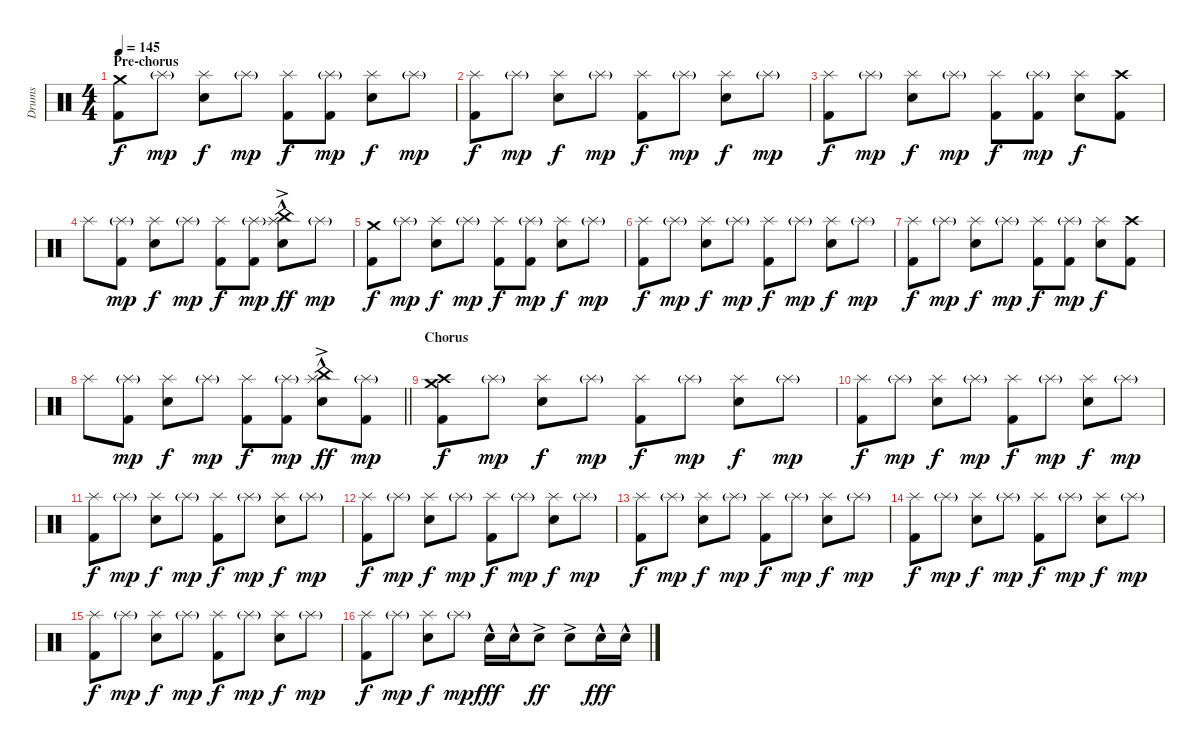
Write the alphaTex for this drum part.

\track ("Drums" "Drums") {instrument percussion}
\staff {score}
\articulation defaults
\ts (4 4)
\section ("" "Pre-chorus")
\tempo 145
\clef neutral
\ks c
("Crash medium (hit)" "Kick (hit) 2").8{dy f} "Splash (hit)"{g}.8{dy mp} ("Splash (hit)" "Snare (hit) 2").8{dy f} "Splash (hit)"{g}.8{dy mp} ("Splash (hit)" "Kick (hit) 2").8{dy f} ("Splash (hit)"{g} "Kick (hit) 2").8{dy mp} ("Splash (hit)" "Snare (hit) 2").8{dy f} "Splash (hit)"{g}.8{dy mp} |
("Splash (hit)" "Kick (hit) 2").8{dy f} "Splash (hit)"{g}.8{dy mp} ("Splash (hit)" "Snare (hit) 2").8{dy f} "Splash (hit)"{g}.8{dy mp} ("Splash (hit)" "Kick (hit) 2").8{dy f} "Splash (hit)"{g}.8{dy mp} ("Splash (hit)" "Snare (hit) 2").8{dy f} "Splash (hit)"{g}.8{dy mp} |
("Splash (hit)" "Kick (hit) 2").8{dy f} "Splash (hit)"{g}.8{dy mp} ("Splash (hit)" "Snare (hit) 2").8{dy f} "Splash (hit)"{g}.8{dy mp} ("Splash (hit)" "Kick (hit) 2").8{dy f} ("Splash (hit)"{g} "Kick (hit) 2").8{dy mp} ("Splash (hit)" "Snare (hit) 2").8{dy f} ("Crash high (hit)" "Kick (hit) 2").8 |
"Splash (hit)".8 ("Splash (hit)"{g} "Kick (hit) 2").8{dy mp} ("Splash (hit)" "Snare (hit) 2").8{dy f} "Splash (hit)"{g}.8{dy mp} ("Splash (hit)" "Kick (hit) 2").8{dy f} ("Splash (hit)"{g} "Kick (hit) 2").8{dy mp} ("China (hit)"{hac} "Splash (hit)"{ac} "Snare (hit) 2").8{dy ff} "Splash (hit)"{g}.8{dy mp} |
("Crash medium (hit)" "Kick (hit) 2").8{dy f} "Splash (hit)"{g}.8{dy mp} ("Splash (hit)" "Snare (hit) 2").8{dy f} "Splash (hit)"{g}.8{dy mp} ("Splash (hit)" "Kick (hit) 2").8{dy f} ("Splash (hit)"{g} "Kick (hit) 2").8{dy mp} ("Splash (hit)" "Snare (hit) 2").8{dy f} "Splash (hit)"{g}.8{dy mp} |
("Splash (hit)" "Kick (hit) 2").8{dy f} "Splash (hit)"{g}.8{dy mp} ("Splash (hit)" "Snare (hit) 2").8{dy f} "Splash (hit)"{g}.8{dy mp} ("Splash (hit)" "Kick (hit) 2").8{dy f} "Splash (hit)"{g}.8{dy mp} ("Splash (hit)" "Snare (hit) 2").8{dy f} "Splash (hit)"{g}.8{dy mp} |
("Splash (hit)" "Kick (hit) 2").8{dy f} "Splash (hit)"{g}.8{dy mp} ("Splash (hit)" "Snare (hit) 2").8{dy f} "Splash (hit)"{g}.8{dy mp} ("Splash (hit)" "Kick (hit) 2").8{dy f} ("Splash (hit)"{g} "Kick (hit) 2").8{dy mp} ("Splash (hit)" "Snare (hit) 2").8{dy f} ("Crash high (hit)" "Kick (hit) 2").8 |
\barLineRight lightlight "Splash (hit)".8
("Splash (hit)"{g} "Kick (hit) 2").8{dy mp} ("Splash (hit)" "Snare (hit) 2").8{dy f} "Splash (hit)"{g}.8{dy mp} ("Splash (hit)" "Kick (hit) 2").8{dy f} ("Splash (hit)"{g} "Kick (hit) 2").8{dy mp} ("China (hit)"{hac} "Splash (hit)"{ac} "Snare (hit) 2").8{dy ff} ("Splash (hit)"{g} "Kick (hit) 2").8{dy mp} |
\section ("" "Chorus")
("Crash high (hit)" "Crash medium (hit)" "Kick (hit) 2").8{dy f} "Splash (hit)"{g}.8{dy mp} ("Splash (hit)" "Snare (hit) 2").8{dy f} "Splash (hit)"{g}.8{dy mp} ("Splash (hit)" "Kick (hit) 2").8{dy f} "Splash (hit)"{g}.8{dy mp} ("Splash (hit)" "Snare (hit) 2").8{dy f} "Splash (hit)"{g}.8{dy mp} |
("Splash (hit)" "Kick (hit) 2").8{dy f} "Splash (hit)"{g}.8{dy mp} ("Splash (hit)" "Snare (hit) 2").8{dy f} "Splash (hit)"{g}.8{dy mp} ("Splash (hit)" "Kick (hit) 2").8{dy f} "Splash (hit)"{g}.8{dy mp} ("Splash (hit)" "Snare (hit) 2").8{dy f} "Splash (hit)"{g}.8{dy mp} |
("Splash (hit)" "Kick (hit) 2").8{dy f} "Splash (hit)"{g}.8{dy mp} ("Splash (hit)" "Snare (hit) 2").8{dy f} "Splash (hit)"{g}.8{dy mp} ("Splash (hit)" "Kick (hit) 2").8{dy f} "Splash (hit)"{g}.8{dy mp} ("Splash (hit)" "Snare (hit) 2").8{dy f} "Splash (hit)"{g}.8{dy mp} |
("Splash (hit)" "Kick (hit) 2").8{dy f} "Splash (hit)"{g}.8{dy mp} ("Splash (hit)" "Snare (hit) 2").8{dy f} "Splash (hit)"{g}.8{dy mp} ("Splash (hit)" "Kick (hit) 2").8{dy f} "Splash (hit)"{g}.8{dy mp} ("Splash (hit)" "Snare (hit) 2").8{dy f} "Splash (hit)"{g}.8{dy mp} |
("Splash (hit)" "Kick (hit) 2").8{dy f} "Splash (hit)"{g}.8{dy mp} ("Splash (hit)" "Snare (hit) 2").8{dy f} "Splash (hit)"{g}.8{dy mp} ("Splash (hit)" "Kick (hit) 2").8{dy f} "Splash (hit)"{g}.8{dy mp} ("Splash (hit)" "Snare (hit) 2").8{dy f} "Splash (hit)"{g}.8{dy mp} |
("Splash (hit)" "Kick (hit) 2").8{dy f} "Splash (hit)"{g}.8{dy mp} ("Splash (hit)" "Snare (hit) 2").8{dy f} "Splash (hit)"{g}.8{dy mp} ("Splash (hit)" "Kick (hit) 2").8{dy f} "Splash (hit)"{g}.8{dy mp} ("Splash (hit)" "Snare (hit) 2").8{dy f} "Splash (hit)"{g}.8{dy mp} |
("Splash (hit)" "Kick (hit) 2").8{dy f} "Splash (hit)"{g}.8{dy mp} ("Splash (hit)" "Snare (hit) 2").8{dy f} "Splash (hit)"{g}.8{dy mp} ("Splash (hit)" "Kick (hit) 2").8{dy f} "Splash (hit)"{g}.8{dy mp} ("Splash (hit)" "Snare (hit) 2").8{dy f} "Splash (hit)"{g}.8{dy mp} |
("Splash (hit)" "Kick (hit) 2").8{dy f} "Splash (hit)"{g}.8{dy mp} ("Splash (hit)" "Snare (hit) 2").8{dy f} "Splash (hit)"{g}.8{dy mp} "Snare (hit) 2"{hac}.16{dy fff} "Snare (hit) 2"{hac}.16 "Snare (hit) 2"{ac}.8{dy ff} "Snare (hit) 2"{ac}.8 "Snare (hit) 2"{hac}.16{dy fff} "Snare (hit) 2"{hac}.16
